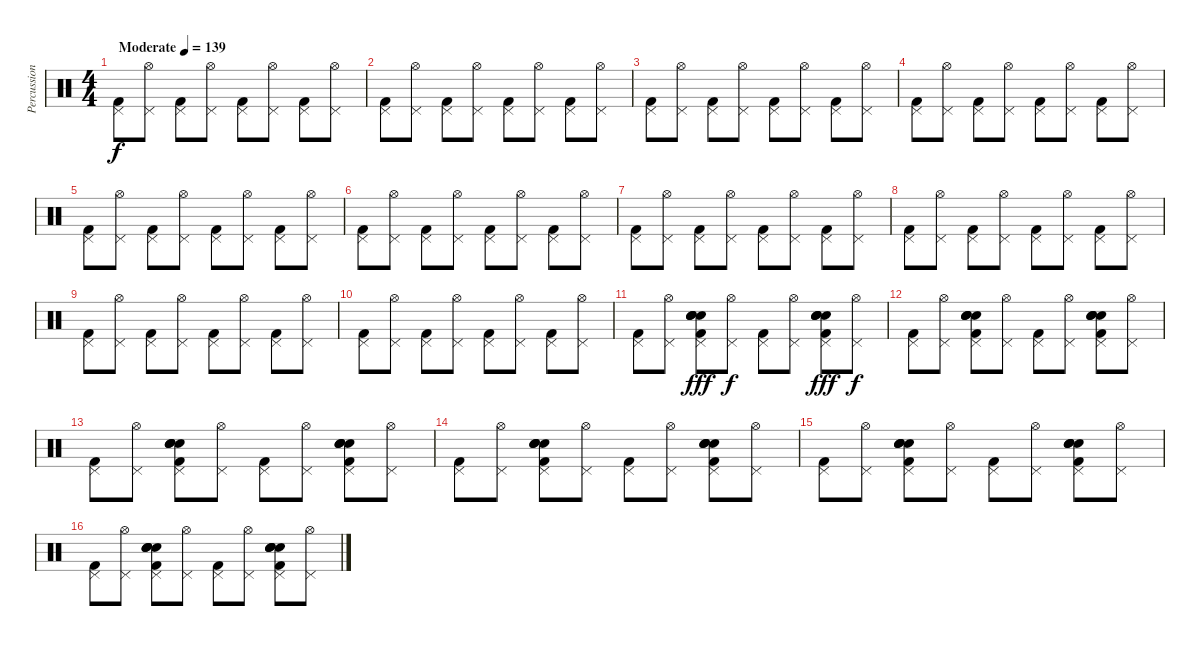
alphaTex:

\track ("Percussion" "Percussion") {instrument percussion}
\staff {score}
\articulation defaults
\ts (4 4)
\tempo (139 "Moderate")
\clef neutral
\ks c
("Kick (hit) 2" "Pedal Hi-Hat (hit)").8{dy f} ("Pedal Hi-Hat (hit)" "Hi-Hat (open)").8 ("Kick (hit) 2" "Pedal Hi-Hat (hit)").8 ("Pedal Hi-Hat (hit)" "Hi-Hat (open)").8 ("Kick (hit) 2" "Pedal Hi-Hat (hit)").8 ("Pedal Hi-Hat (hit)" "Hi-Hat (open)").8 ("Kick (hit) 2" "Pedal Hi-Hat (hit)").8 ("Pedal Hi-Hat (hit)" "Hi-Hat (open)").8 |
("Kick (hit) 2" "Pedal Hi-Hat (hit)").8 ("Pedal Hi-Hat (hit)" "Hi-Hat (open)").8 ("Kick (hit) 2" "Pedal Hi-Hat (hit)").8 ("Pedal Hi-Hat (hit)" "Hi-Hat (open)").8 ("Kick (hit) 2" "Pedal Hi-Hat (hit)").8 ("Pedal Hi-Hat (hit)" "Hi-Hat (open)").8 ("Kick (hit) 2" "Pedal Hi-Hat (hit)").8 ("Pedal Hi-Hat (hit)" "Hi-Hat (open)").8 |
("Kick (hit) 2" "Pedal Hi-Hat (hit)").8 ("Pedal Hi-Hat (hit)" "Hi-Hat (open)").8 ("Kick (hit) 2" "Pedal Hi-Hat (hit)").8 ("Pedal Hi-Hat (hit)" "Hi-Hat (open)").8 ("Kick (hit) 2" "Pedal Hi-Hat (hit)").8 ("Pedal Hi-Hat (hit)" "Hi-Hat (open)").8 ("Kick (hit) 2" "Pedal Hi-Hat (hit)").8 ("Pedal Hi-Hat (hit)" "Hi-Hat (open)").8 |
("Kick (hit) 2" "Pedal Hi-Hat (hit)").8 ("Pedal Hi-Hat (hit)" "Hi-Hat (open)").8 ("Kick (hit) 2" "Pedal Hi-Hat (hit)").8 ("Pedal Hi-Hat (hit)" "Hi-Hat (open)").8 ("Kick (hit) 2" "Pedal Hi-Hat (hit)").8 ("Pedal Hi-Hat (hit)" "Hi-Hat (open)").8 ("Kick (hit) 2" "Pedal Hi-Hat (hit)").8 ("Pedal Hi-Hat (hit)" "Hi-Hat (open)").8 |
("Kick (hit) 2" "Pedal Hi-Hat (hit)").8 ("Pedal Hi-Hat (hit)" "Hi-Hat (open)").8 ("Kick (hit) 2" "Pedal Hi-Hat (hit)").8 ("Pedal Hi-Hat (hit)" "Hi-Hat (open)").8 ("Kick (hit) 2" "Pedal Hi-Hat (hit)").8 ("Pedal Hi-Hat (hit)" "Hi-Hat (open)").8 ("Kick (hit) 2" "Pedal Hi-Hat (hit)").8 ("Pedal Hi-Hat (hit)" "Hi-Hat (open)").8 |
("Kick (hit) 2" "Pedal Hi-Hat (hit)").8 ("Pedal Hi-Hat (hit)" "Hi-Hat (open)").8 ("Kick (hit) 2" "Pedal Hi-Hat (hit)").8 ("Pedal Hi-Hat (hit)" "Hi-Hat (open)").8 ("Kick (hit) 2" "Pedal Hi-Hat (hit)").8 ("Pedal Hi-Hat (hit)" "Hi-Hat (open)").8 ("Kick (hit) 2" "Pedal Hi-Hat (hit)").8 ("Pedal Hi-Hat (hit)" "Hi-Hat (open)").8 |
("Kick (hit) 2" "Pedal Hi-Hat (hit)").8 ("Pedal Hi-Hat (hit)" "Hi-Hat (open)").8 ("Kick (hit) 2" "Pedal Hi-Hat (hit)").8 ("Pedal Hi-Hat (hit)" "Hi-Hat (open)").8 ("Kick (hit) 2" "Pedal Hi-Hat (hit)").8 ("Pedal Hi-Hat (hit)" "Hi-Hat (open)").8 ("Kick (hit) 2" "Pedal Hi-Hat (hit)").8 ("Pedal Hi-Hat (hit)" "Hi-Hat (open)").8 |
("Kick (hit) 2" "Pedal Hi-Hat (hit)").8 ("Pedal Hi-Hat (hit)" "Hi-Hat (open)").8 ("Kick (hit) 2" "Pedal Hi-Hat (hit)").8 ("Pedal Hi-Hat (hit)" "Hi-Hat (open)").8 ("Kick (hit) 2" "Pedal Hi-Hat (hit)").8 ("Pedal Hi-Hat (hit)" "Hi-Hat (open)").8 ("Kick (hit) 2" "Pedal Hi-Hat (hit)").8 ("Pedal Hi-Hat (hit)" "Hi-Hat (open)").8 |
("Kick (hit) 2" "Pedal Hi-Hat (hit)").8 ("Pedal Hi-Hat (hit)" "Hi-Hat (open)").8 ("Kick (hit) 2" "Pedal Hi-Hat (hit)").8 ("Pedal Hi-Hat (hit)" "Hi-Hat (open)").8 ("Kick (hit) 2" "Pedal Hi-Hat (hit)").8 ("Pedal Hi-Hat (hit)" "Hi-Hat (open)").8 ("Kick (hit) 2" "Pedal Hi-Hat (hit)").8 ("Pedal Hi-Hat (hit)" "Hi-Hat (open)").8 |
("Kick (hit) 2" "Pedal Hi-Hat (hit)").8 ("Pedal Hi-Hat (hit)" "Hi-Hat (open)").8 ("Kick (hit) 2" "Pedal Hi-Hat (hit)").8 ("Pedal Hi-Hat (hit)" "Hi-Hat (open)").8 ("Kick (hit) 2" "Pedal Hi-Hat (hit)").8 ("Pedal Hi-Hat (hit)" "Hi-Hat (open)").8 ("Kick (hit) 2" "Pedal Hi-Hat (hit)").8 ("Pedal Hi-Hat (hit)" "Hi-Hat (open)").8 |
("Kick (hit) 2" "Pedal Hi-Hat (hit)").8 ("Pedal Hi-Hat (hit)" "Hi-Hat (open)").8 ("Kick (hit) 2" "Hand Clap (hit)" "Pedal Hi-Hat (hit)" "Hand Clap (hit)" "Hand Clap (hit)" "Hand Clap (hit)").8{dy fff} ("Pedal Hi-Hat (hit)" "Hi-Hat (open)").8{dy f} ("Kick (hit) 2" "Pedal Hi-Hat (hit)").8 ("Pedal Hi-Hat (hit)" "Hi-Hat (open)").8 ("Kick (hit) 2" "Hand Clap (hit)" "Pedal Hi-Hat (hit)" "Hand Clap (hit)" "Hand Clap (hit)" "Hand Clap (hit)").8{dy fff} ("Pedal Hi-Hat (hit)" "Hi-Hat (open)").8{dy f} |
("Kick (hit) 2" "Pedal Hi-Hat (hit)").8 ("Pedal Hi-Hat (hit)" "Hi-Hat (open)").8 ("Kick (hit) 2" "Hand Clap (hit)" "Pedal Hi-Hat (hit)" "Hand Clap (hit)" "Hand Clap (hit)" "Hand Clap (hit)").8 ("Pedal Hi-Hat (hit)" "Hi-Hat (open)").8 ("Kick (hit) 2" "Pedal Hi-Hat (hit)").8 ("Pedal Hi-Hat (hit)" "Hi-Hat (open)").8 ("Kick (hit) 2" "Hand Clap (hit)" "Pedal Hi-Hat (hit)" "Hand Clap (hit)" "Hand Clap (hit)" "Hand Clap (hit)").8 ("Pedal Hi-Hat (hit)" "Hi-Hat (open)").8 |
("Kick (hit) 2" "Pedal Hi-Hat (hit)").8 ("Pedal Hi-Hat (hit)" "Hi-Hat (open)").8 ("Kick (hit) 2" "Hand Clap (hit)" "Pedal Hi-Hat (hit)" "Hand Clap (hit)" "Hand Clap (hit)" "Hand Clap (hit)").8 ("Pedal Hi-Hat (hit)" "Hi-Hat (open)").8 ("Kick (hit) 2" "Pedal Hi-Hat (hit)").8 ("Pedal Hi-Hat (hit)" "Hi-Hat (open)").8 ("Kick (hit) 2" "Hand Clap (hit)" "Pedal Hi-Hat (hit)" "Hand Clap (hit)" "Hand Clap (hit)" "Hand Clap (hit)").8 ("Pedal Hi-Hat (hit)" "Hi-Hat (open)").8 |
("Kick (hit) 2" "Pedal Hi-Hat (hit)").8 ("Pedal Hi-Hat (hit)" "Hi-Hat (open)").8 ("Kick (hit) 2" "Hand Clap (hit)" "Pedal Hi-Hat (hit)" "Hand Clap (hit)" "Hand Clap (hit)" "Hand Clap (hit)").8 ("Pedal Hi-Hat (hit)" "Hi-Hat (open)").8 ("Kick (hit) 2" "Pedal Hi-Hat (hit)").8 ("Pedal Hi-Hat (hit)" "Hi-Hat (open)").8 ("Kick (hit) 2" "Hand Clap (hit)" "Pedal Hi-Hat (hit)" "Hand Clap (hit)" "Hand Clap (hit)" "Hand Clap (hit)").8 ("Pedal Hi-Hat (hit)" "Hi-Hat (open)").8 |
("Kick (hit) 2" "Pedal Hi-Hat (hit)").8 ("Pedal Hi-Hat (hit)" "Hi-Hat (open)").8 ("Kick (hit) 2" "Hand Clap (hit)" "Pedal Hi-Hat (hit)" "Hand Clap (hit)" "Hand Clap (hit)" "Hand Clap (hit)").8 ("Pedal Hi-Hat (hit)" "Hi-Hat (open)").8 ("Kick (hit) 2" "Pedal Hi-Hat (hit)").8 ("Pedal Hi-Hat (hit)" "Hi-Hat (open)").8 ("Kick (hit) 2" "Hand Clap (hit)" "Pedal Hi-Hat (hit)" "Hand Clap (hit)" "Hand Clap (hit)" "Hand Clap (hit)").8 ("Pedal Hi-Hat (hit)" "Hi-Hat (open)").8 |
("Kick (hit) 2" "Pedal Hi-Hat (hit)").8 ("Pedal Hi-Hat (hit)" "Hi-Hat (open)").8 ("Kick (hit) 2" "Hand Clap (hit)" "Pedal Hi-Hat (hit)" "Hand Clap (hit)" "Hand Clap (hit)" "Hand Clap (hit)").8 ("Pedal Hi-Hat (hit)" "Hi-Hat (open)").8 ("Kick (hit) 2" "Pedal Hi-Hat (hit)").8 ("Pedal Hi-Hat (hit)" "Hi-Hat (open)").8 ("Kick (hit) 2" "Hand Clap (hit)" "Pedal Hi-Hat (hit)" "Hand Clap (hit)" "Hand Clap (hit)" "Hand Clap (hit)").8 ("Pedal Hi-Hat (hit)" "Hi-Hat (open)").8
